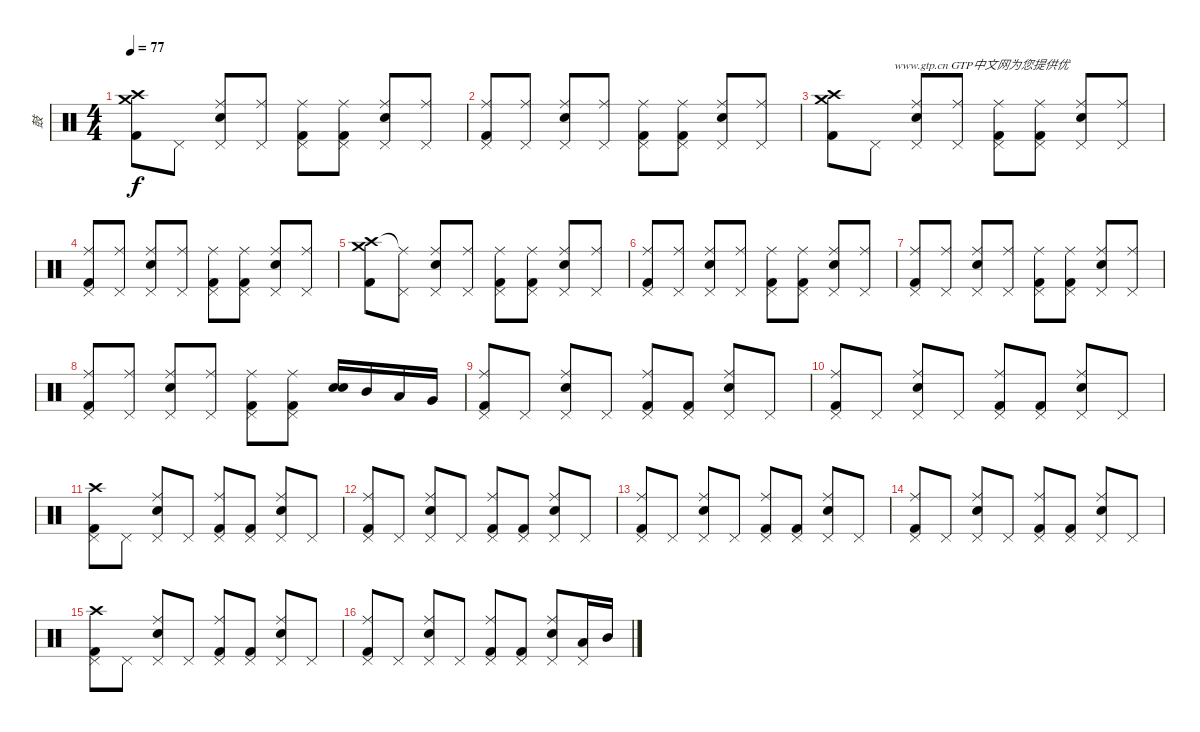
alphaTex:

\track ("鼓" "鼓") {instrument percussion}
\staff {score}
\articulation defaults
\ts (4 4)
\tempo 77
\clef neutral
\ks c
("Crash medium (hit)" "Crash high (hit)" "Kick (hit) 2").8{dy f} "Pedal Hi-Hat (hit)".8 ("Ride (middle)" "Pedal Hi-Hat (hit)" "Electric Snare (hit)").8 ("Ride (middle)" "Pedal Hi-Hat (hit)").8 ("Ride (middle)" "Pedal Hi-Hat (hit)" "Kick (hit) 2").8 ("Ride (middle)" "Pedal Hi-Hat (hit)" "Kick (hit) 2").8 ("Ride (middle)" "Pedal Hi-Hat (hit)" "Electric Snare (hit)").8 ("Ride (middle)" "Pedal Hi-Hat (hit)").8 |
("Ride (middle)" "Pedal Hi-Hat (hit)" "Kick (hit) 2").8 ("Ride (middle)" "Pedal Hi-Hat (hit)").8 ("Ride (middle)" "Pedal Hi-Hat (hit)" "Electric Snare (hit)").8 ("Ride (middle)" "Pedal Hi-Hat (hit)").8 ("Ride (middle)" "Pedal Hi-Hat (hit)" "Kick (hit) 2").8 ("Ride (middle)" "Pedal Hi-Hat (hit)" "Kick (hit) 2").8 ("Ride (middle)" "Pedal Hi-Hat (hit)" "Electric Snare (hit)").8 ("Ride (middle)" "Pedal Hi-Hat (hit)").8 |
("Crash high (hit)" "Crash medium (hit)" "Kick (hit) 2").8{txt "                    www.gtp.cn GTP中文网为您提供优"} "Pedal Hi-Hat (hit)".8 ("Ride (middle)" "Pedal Hi-Hat (hit)" "Electric Snare (hit)").8 ("Ride (middle)" "Pedal Hi-Hat (hit)").8 ("Ride (middle)" "Pedal Hi-Hat (hit)" "Kick (hit) 2").8 ("Ride (middle)" "Pedal Hi-Hat (hit)" "Kick (hit) 2").8 ("Ride (middle)" "Pedal Hi-Hat (hit)" "Electric Snare (hit)").8 ("Ride (middle)" "Pedal Hi-Hat (hit)").8 |
("Ride (middle)" "Pedal Hi-Hat (hit)" "Kick (hit) 2").8 ("Ride (middle)" "Pedal Hi-Hat (hit)").8 ("Ride (middle)" "Pedal Hi-Hat (hit)" "Electric Snare (hit)").8 ("Ride (middle)" "Pedal Hi-Hat (hit)").8 ("Ride (middle)" "Pedal Hi-Hat (hit)" "Kick (hit) 2").8 ("Ride (middle)" "Pedal Hi-Hat (hit)" "Kick (hit) 2").8 ("Ride (middle)" "Pedal Hi-Hat (hit)" "Electric Snare (hit)").8 ("Ride (middle)" "Pedal Hi-Hat (hit)").8 |
("Crash high (hit)" "Crash medium (hit)" "Kick (hit) 2").8 ("Ride (middle)"{t} "Pedal Hi-Hat (hit)").8 ("Ride (middle)" "Pedal Hi-Hat (hit)" "Electric Snare (hit)").8 ("Ride (middle)" "Pedal Hi-Hat (hit)").8 ("Ride (middle)" "Pedal Hi-Hat (hit)" "Kick (hit) 2").8 ("Ride (middle)" "Pedal Hi-Hat (hit)" "Kick (hit) 2").8 ("Ride (middle)" "Pedal Hi-Hat (hit)" "Electric Snare (hit)").8 ("Ride (middle)" "Pedal Hi-Hat (hit)").8 |
("Ride (middle)" "Pedal Hi-Hat (hit)" "Kick (hit) 2").8 ("Ride (middle)" "Pedal Hi-Hat (hit)").8 ("Ride (middle)" "Pedal Hi-Hat (hit)" "Electric Snare (hit)").8 ("Ride (middle)" "Pedal Hi-Hat (hit)").8 ("Ride (middle)" "Pedal Hi-Hat (hit)" "Kick (hit) 2").8 ("Ride (middle)" "Pedal Hi-Hat (hit)" "Kick (hit) 2").8 ("Ride (middle)" "Pedal Hi-Hat (hit)" "Electric Snare (hit)").8 ("Ride (middle)" "Pedal Hi-Hat (hit)").8 |
("Ride (middle)" "Pedal Hi-Hat (hit)" "Kick (hit) 2").8 ("Ride (middle)" "Pedal Hi-Hat (hit)").8 ("Ride (middle)" "Pedal Hi-Hat (hit)" "Electric Snare (hit)").8 ("Ride (middle)" "Pedal Hi-Hat (hit)").8 ("Ride (middle)" "Pedal Hi-Hat (hit)" "Kick (hit) 2").8 ("Ride (middle)" "Pedal Hi-Hat (hit)" "Kick (hit) 2").8 ("Ride (middle)" "Pedal Hi-Hat (hit)" "Electric Snare (hit)").8 ("Ride (middle)" "Pedal Hi-Hat (hit)").8 |
("Ride (middle)" "Pedal Hi-Hat (hit)" "Kick (hit) 2").8 ("Ride (middle)" "Pedal Hi-Hat (hit)").8 ("Ride (middle)" "Pedal Hi-Hat (hit)" "Electric Snare (hit)").8 ("Ride (middle)" "Pedal Hi-Hat (hit)").8 ("Ride (middle)" "Pedal Hi-Hat (hit)" "Kick (hit) 2").8 ("Ride (middle)" "Pedal Hi-Hat (hit)" "Kick (hit) 2").8 ("Electric Snare (hit)" "Electric Snare (hit)").16 "Mid Tom (hit)".16 "Low Tom (hit)".16 "Very Low Tom (hit)".16 |
("Ride (middle)" "Pedal Hi-Hat (hit)" "Kick (hit) 2").8 "Pedal Hi-Hat (hit)".8 ("Ride (middle)" "Pedal Hi-Hat (hit)" "Electric Snare (hit)").8 "Pedal Hi-Hat (hit)".8 ("Ride (middle)" "Pedal Hi-Hat (hit)" "Kick (hit) 2").8 ("Pedal Hi-Hat (hit)" "Kick (hit) 2").8 ("Ride (middle)" "Pedal Hi-Hat (hit)" "Electric Snare (hit)").8 "Pedal Hi-Hat (hit)".8 |
("Ride (middle)" "Pedal Hi-Hat (hit)" "Kick (hit) 2").8 "Pedal Hi-Hat (hit)".8 ("Ride (middle)" "Pedal Hi-Hat (hit)" "Electric Snare (hit)").8 "Pedal Hi-Hat (hit)".8 ("Ride (middle)" "Pedal Hi-Hat (hit)" "Kick (hit) 2").8 ("Pedal Hi-Hat (hit)" "Kick (hit) 2").8 ("Ride (middle)" "Pedal Hi-Hat (hit)" "Electric Snare (hit)").8 "Pedal Hi-Hat (hit)".8 |
("Crash high (hit)" "Pedal Hi-Hat (hit)" "Kick (hit) 2").8 "Pedal Hi-Hat (hit)".8 ("Ride (middle)" "Pedal Hi-Hat (hit)" "Electric Snare (hit)").8 "Pedal Hi-Hat (hit)".8 ("Ride (middle)" "Pedal Hi-Hat (hit)" "Kick (hit) 2").8 ("Pedal Hi-Hat (hit)" "Kick (hit) 2").8 ("Ride (middle)" "Pedal Hi-Hat (hit)" "Electric Snare (hit)").8 "Pedal Hi-Hat (hit)".8 |
("Ride (middle)" "Pedal Hi-Hat (hit)" "Kick (hit) 2").8 "Pedal Hi-Hat (hit)".8 ("Ride (middle)" "Pedal Hi-Hat (hit)" "Electric Snare (hit)").8 "Pedal Hi-Hat (hit)".8 ("Ride (middle)" "Pedal Hi-Hat (hit)" "Kick (hit) 2").8 ("Pedal Hi-Hat (hit)" "Kick (hit) 2").8 ("Ride (middle)" "Pedal Hi-Hat (hit)" "Electric Snare (hit)").8 "Pedal Hi-Hat (hit)".8 |
("Ride (middle)" "Pedal Hi-Hat (hit)" "Kick (hit) 2").8 "Pedal Hi-Hat (hit)".8 ("Ride (middle)" "Pedal Hi-Hat (hit)" "Electric Snare (hit)").8 "Pedal Hi-Hat (hit)".8 ("Ride (middle)" "Pedal Hi-Hat (hit)" "Kick (hit) 2").8 ("Pedal Hi-Hat (hit)" "Kick (hit) 2").8 ("Ride (middle)" "Pedal Hi-Hat (hit)" "Electric Snare (hit)").8 "Pedal Hi-Hat (hit)".8 |
("Ride (middle)" "Pedal Hi-Hat (hit)" "Kick (hit) 2").8 "Pedal Hi-Hat (hit)".8 ("Ride (middle)" "Pedal Hi-Hat (hit)" "Electric Snare (hit)").8 "Pedal Hi-Hat (hit)".8 ("Ride (middle)" "Pedal Hi-Hat (hit)" "Kick (hit) 2").8 ("Pedal Hi-Hat (hit)" "Kick (hit) 2").8 ("Ride (middle)" "Pedal Hi-Hat (hit)" "Electric Snare (hit)").8 "Pedal Hi-Hat (hit)".8 |
("Crash high (hit)" "Pedal Hi-Hat (hit)" "Kick (hit) 2").8 "Pedal Hi-Hat (hit)".8 ("Ride (middle)" "Pedal Hi-Hat (hit)" "Electric Snare (hit)").8 "Pedal Hi-Hat (hit)".8 ("Ride (middle)" "Pedal Hi-Hat (hit)" "Kick (hit) 2").8 ("Pedal Hi-Hat (hit)" "Kick (hit) 2").8 ("Ride (middle)" "Pedal Hi-Hat (hit)" "Electric Snare (hit)").8 "Pedal Hi-Hat (hit)".8 |
("Ride (middle)" "Pedal Hi-Hat (hit)" "Kick (hit) 2").8 "Pedal Hi-Hat (hit)".8 ("Ride (middle)" "Pedal Hi-Hat (hit)" "Electric Snare (hit)").8 "Pedal Hi-Hat (hit)".8 ("Ride (middle)" "Pedal Hi-Hat (hit)" "Kick (hit) 2").8 ("Pedal Hi-Hat (hit)" "Kick (hit) 2").8 ("Ride (middle)" "Pedal Hi-Hat (hit)" "Electric Snare (hit)").8 ("Pedal Hi-Hat (hit)" "Low Tom (hit)").16 "Mid Tom (hit)".16
